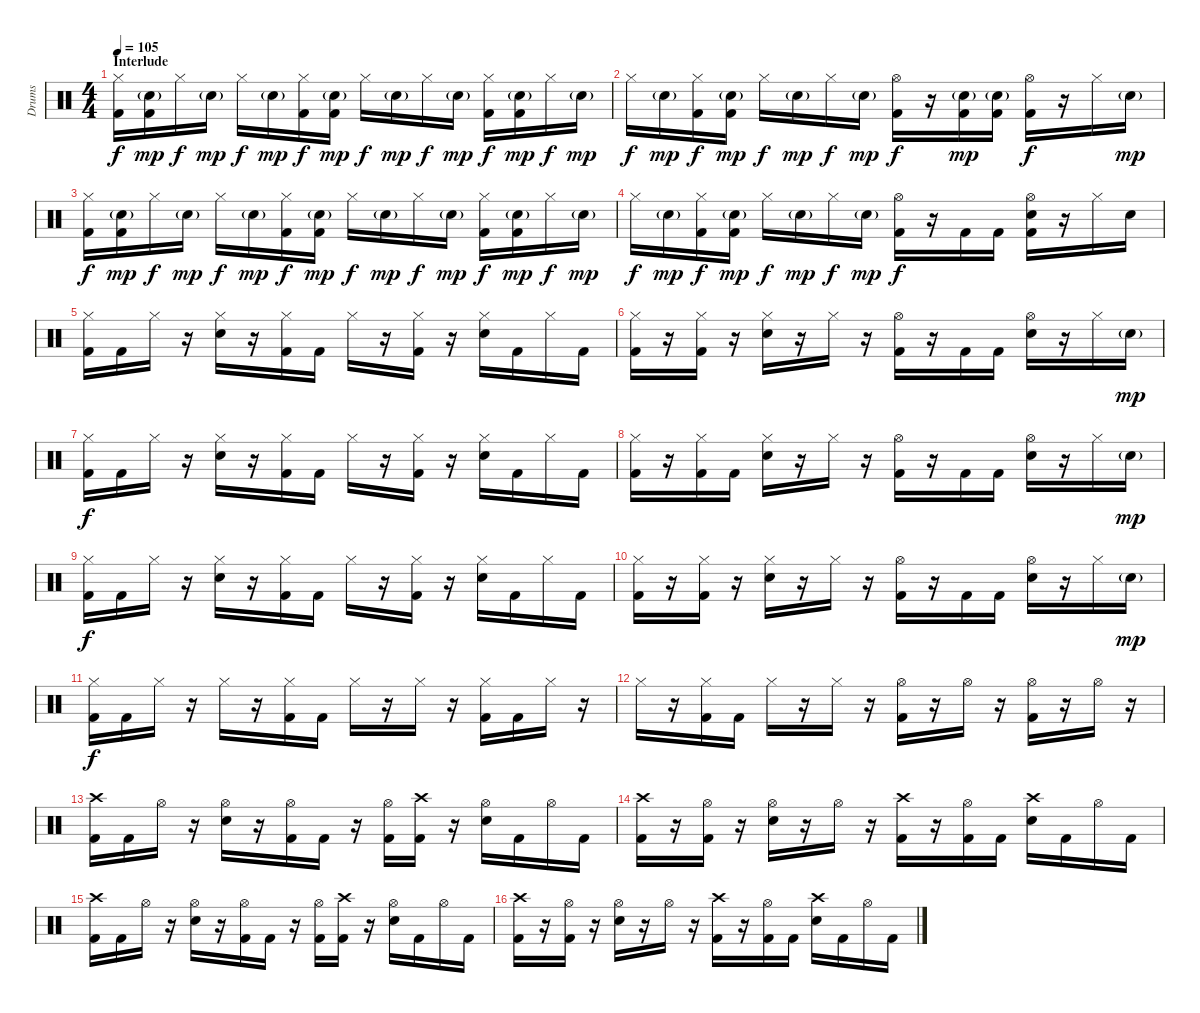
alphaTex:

\track ("Drums" "Drums") {instrument percussion}
\staff {score}
\articulation defaults
\ts (4 4)
\section ("" "Interlude")
\tempo 105
\clef neutral
\ks c
("Hi-Hat (closed)" "Kick (hit) 2").16{dy f} ("Electric Snare (hit)"{g} "Kick (hit) 2").16{dy mp} "Hi-Hat (closed)".16{dy f} "Electric Snare (hit)"{g}.16{dy mp} "Hi-Hat (closed)".16{dy f} "Electric Snare (hit)"{g}.16{dy mp} ("Hi-Hat (closed)" "Kick (hit) 2").16{dy f} ("Electric Snare (hit)"{g} "Kick (hit) 2").16{dy mp} "Hi-Hat (closed)".16{dy f} "Electric Snare (hit)"{g}.16{dy mp} "Hi-Hat (closed)".16{dy f} "Electric Snare (hit)"{g}.16{dy mp} ("Hi-Hat (closed)" "Kick (hit) 2").16{dy f} ("Electric Snare (hit)"{g} "Kick (hit) 2").16{dy mp} "Hi-Hat (closed)".16{dy f} "Electric Snare (hit)"{g}.16{dy mp} |
"Hi-Hat (closed)".16{dy f} "Electric Snare (hit)"{g}.16{dy mp} ("Hi-Hat (closed)" "Kick (hit) 2").16{dy f} ("Electric Snare (hit)"{g} "Kick (hit) 2").16{dy mp} "Hi-Hat (closed)".16{dy f} "Electric Snare (hit)"{g}.16{dy mp} "Hi-Hat (closed)".16{dy f} "Electric Snare (hit)"{g}.16{dy mp} ("Hi-Hat (open)" "Kick (hit) 2").16{dy f} r.16 ("Electric Snare (hit)"{g} "Kick (hit) 2").16{dy mp} ("Electric Snare (hit)"{g} "Kick (hit) 2").16 ("Hi-Hat (open)" "Kick (hit) 2").16{dy f} r.16 "Hi-Hat (closed)".16 "Electric Snare (hit)"{g}.16{dy mp} |
("Hi-Hat (closed)" "Kick (hit) 2").16{dy f} ("Electric Snare (hit)"{g} "Kick (hit) 2").16{dy mp} "Hi-Hat (closed)".16{dy f} "Electric Snare (hit)"{g}.16{dy mp} "Hi-Hat (closed)".16{dy f} "Electric Snare (hit)"{g}.16{dy mp} ("Hi-Hat (closed)" "Kick (hit) 2").16{dy f} ("Electric Snare (hit)"{g} "Kick (hit) 2").16{dy mp} "Hi-Hat (closed)".16{dy f} "Electric Snare (hit)"{g}.16{dy mp} "Hi-Hat (closed)".16{dy f} "Electric Snare (hit)"{g}.16{dy mp} ("Hi-Hat (closed)" "Kick (hit) 2").16{dy f} ("Electric Snare (hit)"{g} "Kick (hit) 2").16{dy mp} "Hi-Hat (closed)".16{dy f} "Electric Snare (hit)"{g}.16{dy mp} |
"Hi-Hat (closed)".16{dy f} "Electric Snare (hit)"{g}.16{dy mp} ("Hi-Hat (closed)" "Kick (hit) 2").16{dy f} ("Electric Snare (hit)"{g} "Kick (hit) 2").16{dy mp} "Hi-Hat (closed)".16{dy f} "Electric Snare (hit)"{g}.16{dy mp} "Hi-Hat (closed)".16{dy f} "Electric Snare (hit)"{g}.16{dy mp} ("Hi-Hat (open)" "Kick (hit) 2").16{dy f} r.16 "Kick (hit) 2".16 "Kick (hit) 2".16 ("Hi-Hat (open)" "Electric Snare (hit)" "Kick (hit) 2").16 r.16 "Hi-Hat (closed)".16 "Electric Snare (hit)".16 |
("Hi-Hat (closed)" "Kick (hit) 2").16 "Kick (hit) 2".16 "Hi-Hat (closed)".16 r.16 ("Hi-Hat (closed)" "Electric Snare (hit)").16 r.16 ("Hi-Hat (closed)" "Kick (hit) 2").16 "Kick (hit) 2".16 "Hi-Hat (closed)".16 r.16 ("Hi-Hat (closed)" "Kick (hit) 2").16 r.16 ("Hi-Hat (closed)" "Electric Snare (hit)").16 "Kick (hit) 2".16 "Hi-Hat (closed)".16 "Kick (hit) 2".16 |
("Hi-Hat (closed)" "Kick (hit) 2").16 r.16 ("Hi-Hat (closed)" "Kick (hit) 2").16 r.16 ("Hi-Hat (closed)" "Electric Snare (hit)").16 r.16 "Hi-Hat (closed)".16 r.16 ("Hi-Hat (open)" "Kick (hit) 2").16 r.16 "Kick (hit) 2".16 "Kick (hit) 2".16 ("Hi-Hat (open)" "Electric Snare (hit)").16 r.16 "Hi-Hat (closed)".16 "Electric Snare (hit)"{g}.16{dy mp} |
("Hi-Hat (closed)" "Kick (hit) 2").16{dy f} "Kick (hit) 2".16 "Hi-Hat (closed)".16 r.16 ("Hi-Hat (closed)" "Electric Snare (hit)").16 r.16 ("Hi-Hat (closed)" "Kick (hit) 2").16 "Kick (hit) 2".16 "Hi-Hat (closed)".16 r.16 ("Hi-Hat (closed)" "Kick (hit) 2").16 r.16 ("Hi-Hat (closed)" "Electric Snare (hit)").16 "Kick (hit) 2".16 "Hi-Hat (closed)".16 "Kick (hit) 2".16 |
("Hi-Hat (closed)" "Kick (hit) 2").16 r.16 ("Hi-Hat (closed)" "Kick (hit) 2").16 "Kick (hit) 2".16 ("Hi-Hat (closed)" "Electric Snare (hit)").16 r.16 "Hi-Hat (closed)".16 r.16 ("Hi-Hat (open)" "Kick (hit) 2").16 r.16 "Kick (hit) 2".16 "Kick (hit) 2".16 ("Hi-Hat (open)" "Electric Snare (hit)").16 r.16 "Hi-Hat (closed)".16 "Electric Snare (hit)"{g}.16{dy mp} |
("Hi-Hat (closed)" "Kick (hit) 2").16{dy f} "Kick (hit) 2".16 "Hi-Hat (closed)".16 r.16 ("Hi-Hat (closed)" "Electric Snare (hit)").16 r.16 ("Hi-Hat (closed)" "Kick (hit) 2").16 "Kick (hit) 2".16 "Hi-Hat (closed)".16 r.16 ("Hi-Hat (closed)" "Kick (hit) 2").16 r.16 ("Hi-Hat (closed)" "Electric Snare (hit)").16 "Kick (hit) 2".16 "Hi-Hat (closed)".16 "Kick (hit) 2".16 |
("Hi-Hat (closed)" "Kick (hit) 2").16 r.16 ("Hi-Hat (closed)" "Kick (hit) 2").16 r.16 ("Hi-Hat (closed)" "Electric Snare (hit)").16 r.16 "Hi-Hat (closed)".16 r.16 ("Hi-Hat (open)" "Kick (hit) 2").16 r.16 "Kick (hit) 2".16 "Kick (hit) 2".16 ("Hi-Hat (open)" "Electric Snare (hit)").16 r.16 "Hi-Hat (closed)".16 "Electric Snare (hit)"{g}.16{dy mp} |
("Hi-Hat (closed)" "Kick (hit) 2").16{dy f} "Kick (hit) 2".16 "Hi-Hat (closed)".16 r.16 "Hi-Hat (closed)".16 r.16 ("Hi-Hat (closed)" "Kick (hit) 2").16 "Kick (hit) 2".16 "Hi-Hat (closed)".16 r.16 "Hi-Hat (closed)".16 r.16 ("Hi-Hat (closed)" "Kick (hit) 2").16 "Kick (hit) 2".16 "Hi-Hat (closed)".16 r.16 |
"Hi-Hat (closed)".16 r.16 ("Hi-Hat (closed)" "Kick (hit) 2").16 "Kick (hit) 2".16 "Hi-Hat (closed)".16 r.16 "Hi-Hat (closed)".16 r.16 ("Hi-Hat (open)" "Kick (hit) 2").16 r.16 "Hi-Hat (open)".16 r.16 ("Hi-Hat (open)" "Kick (hit) 2").16 r.16 "Hi-Hat (open)".16 r.16 |
("Crash high (hit)" "Kick (hit) 2").16 "Kick (hit) 2".16 "Hi-Hat (open)".16 r.16 ("Hi-Hat (open)" "Electric Snare (hit)").16 r.16 ("Hi-Hat (open)" "Kick (hit) 2").16 "Kick (hit) 2".16 r.16 ("Hi-Hat (open)" "Kick (hit) 2").16 ("Crash high (hit)" "Kick (hit) 2").16 r.16 ("Hi-Hat (open)" "Electric Snare (hit)").16 "Kick (hit) 2".16 "Hi-Hat (open)".16 "Kick (hit) 2".16 |
("Crash high (hit)" "Kick (hit) 2").16 r.16 ("Hi-Hat (open)" "Kick (hit) 2").16 r.16 ("Hi-Hat (open)" "Electric Snare (hit)").16 r.16 "Hi-Hat (open)".16 r.16 ("Crash high (hit)" "Kick (hit) 2").16 r.16 ("Hi-Hat (open)" "Kick (hit) 2").16 "Kick (hit) 2".16 ("Crash high (hit)" "Electric Snare (hit)").16 "Kick (hit) 2".16 "Hi-Hat (open)".16 "Kick (hit) 2".16 |
("Crash high (hit)" "Kick (hit) 2").16 "Kick (hit) 2".16 "Hi-Hat (open)".16 r.16 ("Hi-Hat (open)" "Electric Snare (hit)").16 r.16 ("Hi-Hat (open)" "Kick (hit) 2").16 "Kick (hit) 2".16 r.16 ("Hi-Hat (open)" "Kick (hit) 2").16 ("Crash high (hit)" "Kick (hit) 2").16 r.16 ("Hi-Hat (open)" "Electric Snare (hit)").16 "Kick (hit) 2".16 "Hi-Hat (open)".16 "Kick (hit) 2".16 |
("Crash high (hit)" "Kick (hit) 2").16 r.16 ("Hi-Hat (open)" "Kick (hit) 2").16 r.16 ("Hi-Hat (open)" "Electric Snare (hit)").16 r.16 "Hi-Hat (open)".16 r.16 ("Crash high (hit)" "Kick (hit) 2").16 r.16 ("Hi-Hat (open)" "Kick (hit) 2").16 "Kick (hit) 2".16 ("Crash high (hit)" "Electric Snare (hit)").16 "Kick (hit) 2".16 "Hi-Hat (open)".16 "Kick (hit) 2".16
